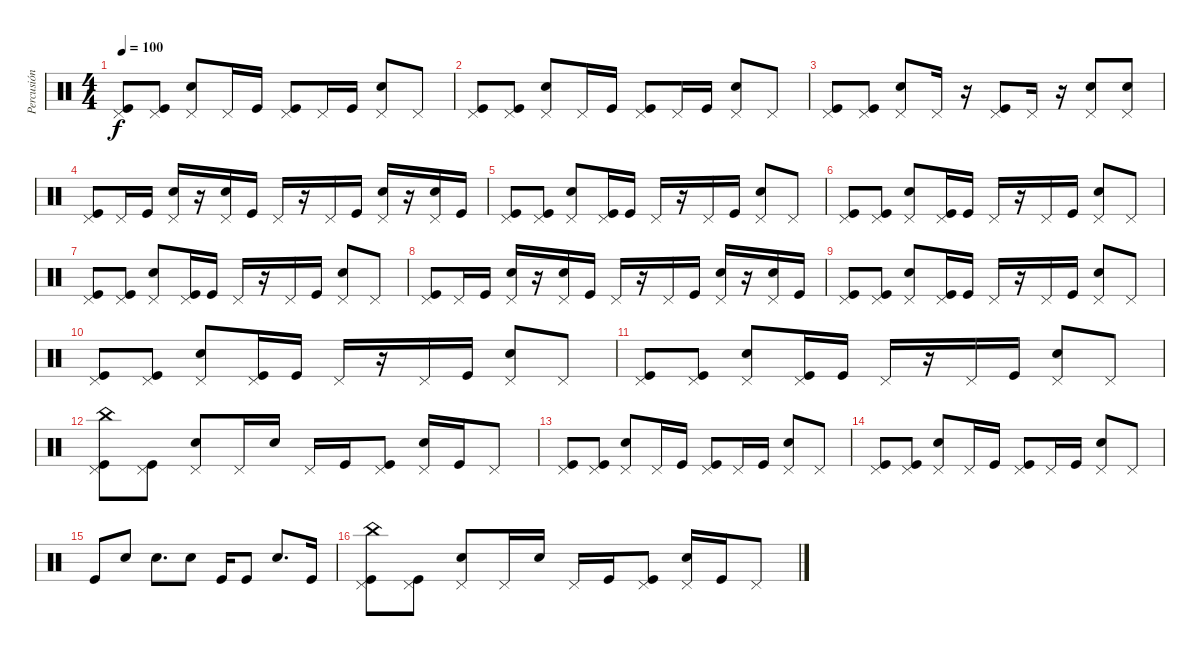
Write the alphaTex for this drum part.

\track ("Percusión" "Percusión") {instrument percussion}
\staff {score}
\articulation defaults
\ts (4 4)
\tempo 100
\clef neutral
\ks c
("Kick (hit)" "Pedal Hi-Hat (hit)").8{dy f} ("Kick (hit)" "Pedal Hi-Hat (hit)").8 ("Electric Snare (hit)" "Pedal Hi-Hat (hit)").8 "Pedal Hi-Hat (hit)".16 "Kick (hit)".16 ("Kick (hit)" "Pedal Hi-Hat (hit)").8 "Pedal Hi-Hat (hit)".16 "Kick (hit)".16 ("Electric Snare (hit)" "Pedal Hi-Hat (hit)").8 "Pedal Hi-Hat (hit)".8 |
("Kick (hit)" "Pedal Hi-Hat (hit)").8 ("Kick (hit)" "Pedal Hi-Hat (hit)").8 ("Electric Snare (hit)" "Pedal Hi-Hat (hit)").8 "Pedal Hi-Hat (hit)".16 "Kick (hit)".16 ("Kick (hit)" "Pedal Hi-Hat (hit)").8 "Pedal Hi-Hat (hit)".16 "Kick (hit)".16 ("Electric Snare (hit)" "Pedal Hi-Hat (hit)").8 "Pedal Hi-Hat (hit)".8 |
("Kick (hit)" "Pedal Hi-Hat (hit)").8 ("Kick (hit)" "Pedal Hi-Hat (hit)").8 ("Electric Snare (hit)" "Pedal Hi-Hat (hit)").8 "Pedal Hi-Hat (hit)".16 r.16 ("Kick (hit)" "Pedal Hi-Hat (hit)").8 "Pedal Hi-Hat (hit)".16 r.16 ("Electric Snare (hit)" "Pedal Hi-Hat (hit)").8 ("Electric Snare (hit)" "Pedal Hi-Hat (hit)").8 |
("Kick (hit)" "Pedal Hi-Hat (hit)").8 "Pedal Hi-Hat (hit)".16 "Kick (hit)".16 ("Electric Snare (hit)" "Pedal Hi-Hat (hit)").16 r.16 ("Electric Snare (hit)" "Pedal Hi-Hat (hit)").16 "Kick (hit)".16 "Pedal Hi-Hat (hit)".16 r.16 "Pedal Hi-Hat (hit)".16 "Kick (hit)".16 ("Electric Snare (hit)" "Pedal Hi-Hat (hit)").16 r.16 ("Electric Snare (hit)" "Pedal Hi-Hat (hit)").16 "Kick (hit)".16 |
("Kick (hit)" "Pedal Hi-Hat (hit)").8 ("Kick (hit)" "Pedal Hi-Hat (hit)").8 ("Electric Snare (hit)" "Pedal Hi-Hat (hit)").8 ("Kick (hit)" "Pedal Hi-Hat (hit)").16 "Kick (hit)".16 "Pedal Hi-Hat (hit)".16 r.16 "Pedal Hi-Hat (hit)".16 "Kick (hit)".16 ("Electric Snare (hit)" "Pedal Hi-Hat (hit)").8 "Pedal Hi-Hat (hit)".8 |
("Kick (hit)" "Pedal Hi-Hat (hit)").8 ("Kick (hit)" "Pedal Hi-Hat (hit)").8 ("Electric Snare (hit)" "Pedal Hi-Hat (hit)").8 ("Kick (hit)" "Pedal Hi-Hat (hit)").16 "Kick (hit)".16 "Pedal Hi-Hat (hit)".16 r.16 "Pedal Hi-Hat (hit)".16 "Kick (hit)".16 ("Electric Snare (hit)" "Pedal Hi-Hat (hit)").8 "Pedal Hi-Hat (hit)".8 |
("Kick (hit)" "Pedal Hi-Hat (hit)").8 ("Kick (hit)" "Pedal Hi-Hat (hit)").8 ("Electric Snare (hit)" "Pedal Hi-Hat (hit)").8 ("Kick (hit)" "Pedal Hi-Hat (hit)").16 "Kick (hit)".16 "Pedal Hi-Hat (hit)".16 r.16 "Pedal Hi-Hat (hit)".16 "Kick (hit)".16 ("Electric Snare (hit)" "Pedal Hi-Hat (hit)").8 "Pedal Hi-Hat (hit)".8 |
("Kick (hit)" "Pedal Hi-Hat (hit)").8 "Pedal Hi-Hat (hit)".16 "Kick (hit)".16 ("Electric Snare (hit)" "Pedal Hi-Hat (hit)").16 r.16 ("Electric Snare (hit)" "Pedal Hi-Hat (hit)").16 "Kick (hit)".16 "Pedal Hi-Hat (hit)".16 r.16 "Pedal Hi-Hat (hit)".16 "Kick (hit)".16 ("Electric Snare (hit)" "Pedal Hi-Hat (hit)").16 r.16 ("Electric Snare (hit)" "Pedal Hi-Hat (hit)").16 "Kick (hit)".16 |
("Kick (hit)" "Pedal Hi-Hat (hit)").8 ("Kick (hit)" "Pedal Hi-Hat (hit)").8 ("Electric Snare (hit)" "Pedal Hi-Hat (hit)").8 ("Kick (hit)" "Pedal Hi-Hat (hit)").16 "Kick (hit)".16 "Pedal Hi-Hat (hit)".16 r.16 "Pedal Hi-Hat (hit)".16 "Kick (hit)".16 ("Electric Snare (hit)" "Pedal Hi-Hat (hit)").8 "Pedal Hi-Hat (hit)".8 |
("Kick (hit)" "Pedal Hi-Hat (hit)").8 ("Kick (hit)" "Pedal Hi-Hat (hit)").8 ("Electric Snare (hit)" "Pedal Hi-Hat (hit)").8 ("Kick (hit)" "Pedal Hi-Hat (hit)").16 "Kick (hit)".16 "Pedal Hi-Hat (hit)".16 r.16 "Pedal Hi-Hat (hit)".16 "Kick (hit)".16 ("Electric Snare (hit)" "Pedal Hi-Hat (hit)").8 "Pedal Hi-Hat (hit)".8 |
("Kick (hit)" "Pedal Hi-Hat (hit)").8 ("Kick (hit)" "Pedal Hi-Hat (hit)").8 ("Electric Snare (hit)" "Pedal Hi-Hat (hit)").8 ("Kick (hit)" "Pedal Hi-Hat (hit)").16 "Kick (hit)".16 "Pedal Hi-Hat (hit)".16 r.16 "Pedal Hi-Hat (hit)".16 "Kick (hit)".16 ("Electric Snare (hit)" "Pedal Hi-Hat (hit)").8 "Pedal Hi-Hat (hit)".8 |
("Kick (hit)" "China (hit)" "Pedal Hi-Hat (hit)").8 ("Kick (hit)" "Pedal Hi-Hat (hit)").8 ("Electric Snare (hit)" "Pedal Hi-Hat (hit)").8 "Pedal Hi-Hat (hit)".16 "Electric Snare (hit)".16 "Pedal Hi-Hat (hit)".16 "Kick (hit)".16 ("Kick (hit)" "Pedal Hi-Hat (hit)").8 ("Electric Snare (hit)" "Pedal Hi-Hat (hit)").16 "Kick (hit)".16 "Pedal Hi-Hat (hit)".8 |
("Kick (hit)" "Pedal Hi-Hat (hit)").8 ("Kick (hit)" "Pedal Hi-Hat (hit)").8 ("Electric Snare (hit)" "Pedal Hi-Hat (hit)").8 "Pedal Hi-Hat (hit)".16 "Kick (hit)".16 ("Kick (hit)" "Pedal Hi-Hat (hit)").8 "Pedal Hi-Hat (hit)".16 "Kick (hit)".16 ("Electric Snare (hit)" "Pedal Hi-Hat (hit)").8 "Pedal Hi-Hat (hit)".8 |
("Kick (hit)" "Pedal Hi-Hat (hit)").8 ("Kick (hit)" "Pedal Hi-Hat (hit)").8 ("Electric Snare (hit)" "Pedal Hi-Hat (hit)").8 "Pedal Hi-Hat (hit)".16 "Kick (hit)".16 ("Kick (hit)" "Pedal Hi-Hat (hit)").8 "Pedal Hi-Hat (hit)".16 "Kick (hit)".16 ("Electric Snare (hit)" "Pedal Hi-Hat (hit)").8 "Pedal Hi-Hat (hit)".8 |
"Kick (hit)".8 "Electric Snare (hit)".8 "Electric Snare (hit)".8{d} "Electric Snare (hit)".8 "Kick (hit)".16 "Kick (hit)".8 "Electric Snare (hit)".8{d} "Kick (hit)".16 |
("Kick (hit)" "China (hit)" "Pedal Hi-Hat (hit)").8 ("Kick (hit)" "Pedal Hi-Hat (hit)").8 ("Electric Snare (hit)" "Pedal Hi-Hat (hit)").8 "Pedal Hi-Hat (hit)".16 "Electric Snare (hit)".16 "Pedal Hi-Hat (hit)".16 "Kick (hit)".16 ("Kick (hit)" "Pedal Hi-Hat (hit)").8 ("Electric Snare (hit)" "Pedal Hi-Hat (hit)").16 "Kick (hit)".16 "Pedal Hi-Hat (hit)".8
